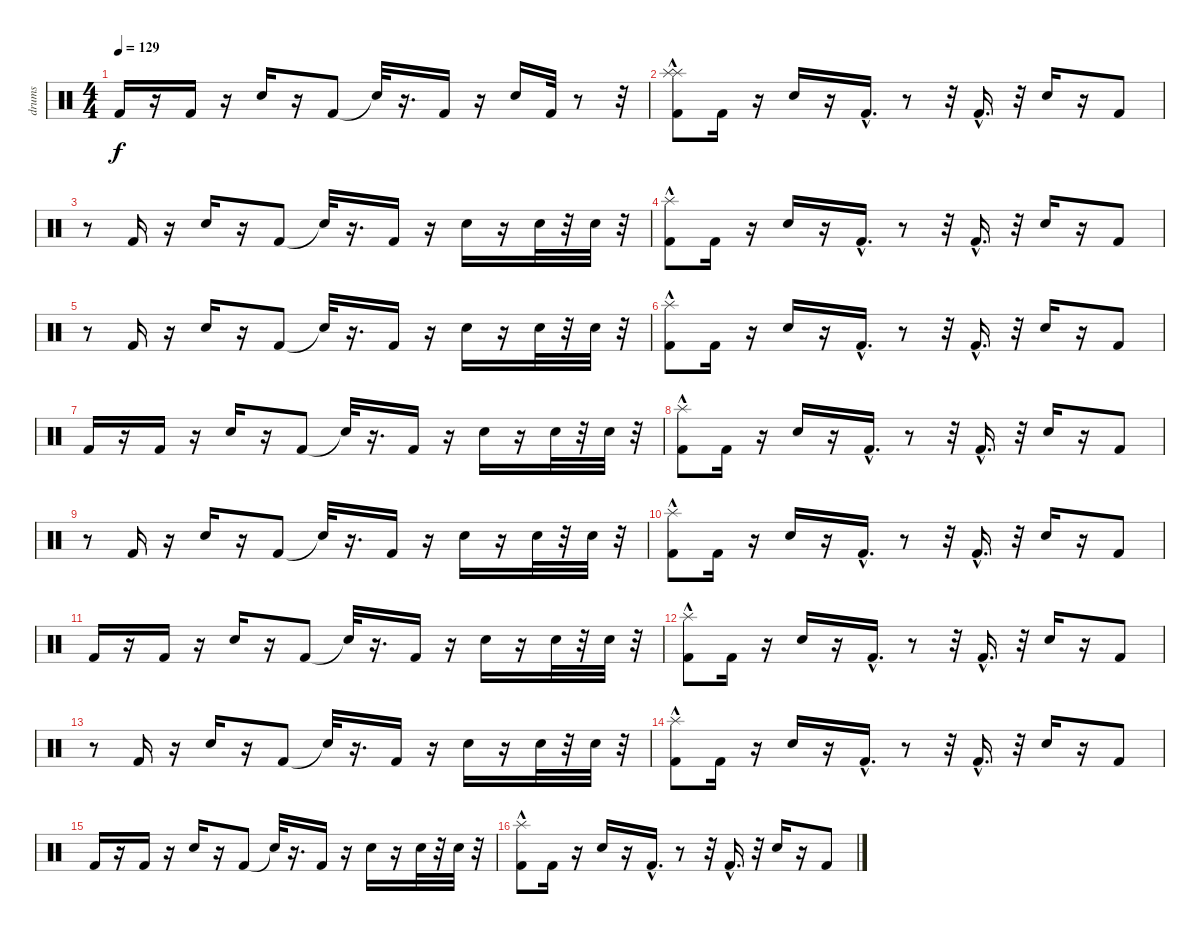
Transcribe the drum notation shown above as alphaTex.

\track ("drums" "drums") {instrument percussion}
\staff {score}
\articulation defaults
\ts (4 4)
\tempo 129
\clef neutral
\ks c "Kick (hit) 2".16{dy f}
r.16 "Kick (hit) 2".16 r.16 "Snare (hit) 2".16 r.16 "Kick (hit) 2".8 "Snare (hit)"{t}.32 r.16{d} "Kick (hit) 2".16 r.16 "Snare (hit) 2".16 "Kick (hit) 2".32 r.8 r.32 |
("Kick (hit) 2" "Splash (hit)"{hac} "Splash (hit)"{hac}).8 "Kick (hit) 2".16 r.16 "Snare (hit) 2".16 r.16 "Kick (hit) 2"{hac}.16{d} r.8 r.32 "Kick (hit) 2"{hac}.16{d} r.32 "Snare (hit) 2".16 r.16 "Kick (hit) 2".8 |
r.8 "Kick (hit) 2".16 r.16 "Snare (hit) 2".16 r.16 "Kick (hit) 2".8 "Snare (hit)"{t}.32 r.16{d} "Kick (hit) 2".16 r.16 "Snare (hit) 2".16 r.16 "Snare (hit) 2".32 r.32 "Snare (hit) 2".32 r.32 |
("Kick (hit) 2" "Splash (hit)"{hac}).8 "Kick (hit) 2".16 r.16 "Snare (hit) 2".16 r.16 "Kick (hit) 2"{hac}.16{d} r.8 r.32 "Kick (hit) 2"{hac}.16{d} r.32 "Snare (hit) 2".16 r.16 "Kick (hit) 2".8 |
r.8 "Kick (hit) 2".16 r.16 "Snare (hit) 2".16 r.16 "Kick (hit) 2".8 "Snare (hit)"{t}.32 r.16{d} "Kick (hit) 2".16 r.16 "Snare (hit) 2".16 r.16 "Snare (hit) 2".32 r.32 "Snare (hit) 2".32 r.32 |
("Kick (hit) 2" "Splash (hit)"{hac}).8 "Kick (hit) 2".16 r.16 "Snare (hit) 2".16 r.16 "Kick (hit) 2"{hac}.16{d} r.8 r.32 "Kick (hit) 2"{hac}.16{d} r.32 "Snare (hit) 2".16 r.16 "Kick (hit) 2".8 |
"Kick (hit) 2".16 r.16 "Kick (hit) 2".16 r.16 "Snare (hit) 2".16 r.16 "Kick (hit) 2".8 "Snare (hit)"{t}.32 r.16{d} "Kick (hit) 2".16 r.16 "Snare (hit) 2".16 r.16 "Snare (hit) 2".32 r.32 "Snare (hit) 2".32 r.32 |
("Kick (hit) 2" "Splash (hit)"{hac}).8 "Kick (hit) 2".16 r.16 "Snare (hit) 2".16 r.16 "Kick (hit) 2"{hac}.16{d} r.8 r.32 "Kick (hit) 2"{hac}.16{d} r.32 "Snare (hit) 2".16 r.16 "Kick (hit) 2".8 |
r.8 "Kick (hit) 2".16 r.16 "Snare (hit) 2".16 r.16 "Kick (hit) 2".8 "Snare (hit)"{t}.32 r.16{d} "Kick (hit) 2".16 r.16 "Snare (hit) 2".16 r.16 "Snare (hit) 2".32 r.32 "Snare (hit) 2".32 r.32 |
("Kick (hit) 2" "Splash (hit)"{hac}).8 "Kick (hit) 2".16 r.16 "Snare (hit) 2".16 r.16 "Kick (hit) 2"{hac}.16{d} r.8 r.32 "Kick (hit) 2"{hac}.16{d} r.32 "Snare (hit) 2".16 r.16 "Kick (hit) 2".8 |
"Kick (hit) 2".16 r.16 "Kick (hit) 2".16 r.16 "Snare (hit) 2".16 r.16 "Kick (hit) 2".8 "Snare (hit)"{t}.32 r.16{d} "Kick (hit) 2".16 r.16 "Snare (hit) 2".16 r.16 "Snare (hit) 2".32 r.32 "Snare (hit) 2".32 r.32 |
("Kick (hit) 2" "Splash (hit)"{hac}).8 "Kick (hit) 2".16 r.16 "Snare (hit) 2".16 r.16 "Kick (hit) 2"{hac}.16{d} r.8 r.32 "Kick (hit) 2"{hac}.16{d} r.32 "Snare (hit) 2".16 r.16 "Kick (hit) 2".8 |
r.8 "Kick (hit) 2".16 r.16 "Snare (hit) 2".16 r.16 "Kick (hit) 2".8 "Snare (hit)"{t}.32 r.16{d} "Kick (hit) 2".16 r.16 "Snare (hit) 2".16 r.16 "Snare (hit) 2".32 r.32 "Snare (hit) 2".32 r.32 |
("Kick (hit) 2" "Splash (hit)"{hac}).8 "Kick (hit) 2".16 r.16 "Snare (hit) 2".16 r.16 "Kick (hit) 2"{hac}.16{d} r.8 r.32 "Kick (hit) 2"{hac}.16{d} r.32 "Snare (hit) 2".16 r.16 "Kick (hit) 2".8 |
"Kick (hit) 2".16 r.16 "Kick (hit) 2".16 r.16 "Snare (hit) 2".16 r.16 "Kick (hit) 2".8 "Snare (hit)"{t}.32 r.16{d} "Kick (hit) 2".16 r.16 "Snare (hit) 2".16 r.16 "Snare (hit) 2".32 r.32 "Snare (hit) 2".32 r.32 |
("Kick (hit) 2" "Splash (hit)"{hac}).8 "Kick (hit) 2".16 r.16 "Snare (hit) 2".16 r.16 "Kick (hit) 2"{hac}.16{d} r.8 r.32 "Kick (hit) 2"{hac}.16{d} r.32 "Snare (hit) 2".16 r.16 "Kick (hit) 2".8
